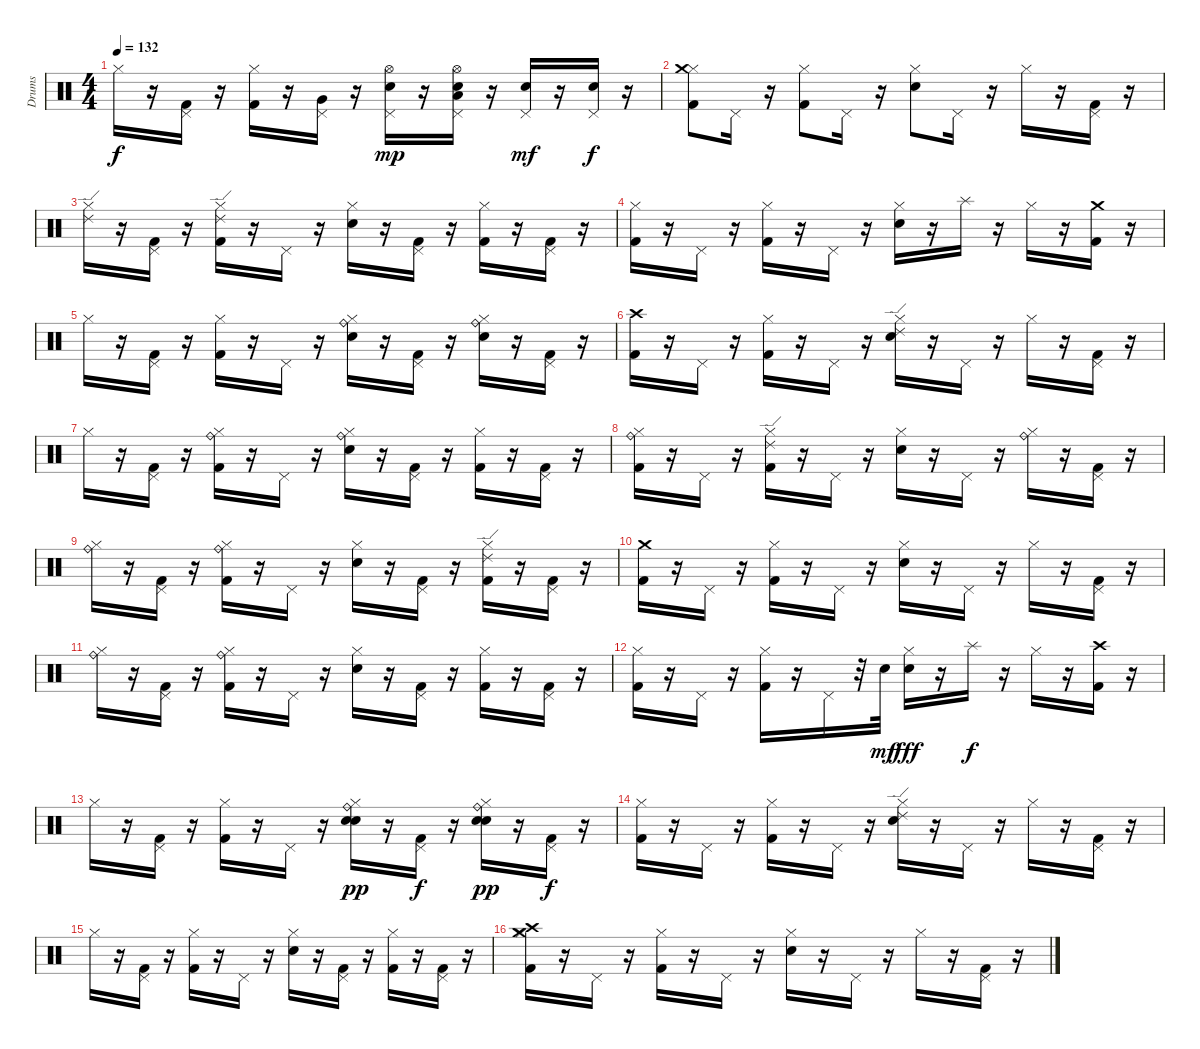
\track ("Drums" "Drums") {instrument percussion}
\staff {score}
\articulation defaults
\ts (4 4)
\tempo 132
\clef neutral
\ks c "Hi-Hat (closed)".16{dy f}
r.16 ("Pedal Hi-Hat (hit)" "Kick (hit) 2").16 r.16 ("Hi-Hat (closed)" "Kick (hit) 2").16 r.16 ("Pedal Hi-Hat (hit)" "Very Low Tom (hit)").16 r.16 ("Pedal Hi-Hat (hit)" "Snare (hit) 2" "Hi-Hat (open)").16{dy mp} r.16 ("Hi-Hat (open)" "Pedal Hi-Hat (hit)" "Low Tom (hit)" "Electric Snare (hit)").16 r.16 ("Pedal Hi-Hat (hit)" "Electric Snare (hit)").16{dy mf} r.16 ("Pedal Hi-Hat (hit)" "Electric Snare (hit)").16{dy f} r.16 |
("Hi-Hat (closed)" "Kick (hit) 2" "Crash medium (hit)").8 "Pedal Hi-Hat (hit)".16 r.16 ("Hi-Hat (closed)" "Kick (hit) 2").8 "Pedal Hi-Hat (hit)".16 r.16 ("Hi-Hat (closed)" "Electric Snare (hit)").8 "Pedal Hi-Hat (hit)".16 r.16 "Hi-Hat (closed)".16 r.16 ("Pedal Hi-Hat (hit)" "Kick (hit) 2").16 r.16 |
("Ride (edge) 2" "Hi-Hat (closed)").16 r.16 ("Pedal Hi-Hat (hit)" "Kick (hit) 2").16 r.16 ("Ride (edge) 2" "Hi-Hat (closed)" "Kick (hit) 2").16 r.16 "Pedal Hi-Hat (hit)".16 r.16 ("Hi-Hat (closed)" "Electric Snare (hit)").16 r.16 ("Pedal Hi-Hat (hit)" "Kick (hit) 2").16 r.16 ("Hi-Hat (closed)" "Kick (hit) 2").16 r.16 ("Pedal Hi-Hat (hit)" "Kick (hit) 2").16 r.16 |
("Hi-Hat (closed)" "Kick (hit) 2").16 r.16 "Pedal Hi-Hat (hit)".16 r.16 ("Hi-Hat (closed)" "Kick (hit) 2").16 r.16 "Pedal Hi-Hat (hit)".16 r.16 ("Hi-Hat (closed)" "Electric Snare (hit)").16 r.16 "Splash (hit)".16 r.16 "Hi-Hat (closed)".16 r.16 ("Crash medium (hit)" "Kick (hit) 2").16 r.16 |
"Hi-Hat (closed)".16 r.16 ("Pedal Hi-Hat (hit)" "Kick (hit) 2").16 r.16 ("Hi-Hat (closed)" "Kick (hit) 2").16 r.16 "Pedal Hi-Hat (hit)".16 r.16 ("Ride (bell)" "Hi-Hat (closed)" "Electric Snare (hit)").16 r.16 ("Pedal Hi-Hat (hit)" "Kick (hit) 2").16 r.16 ("Ride (bell)" "Hi-Hat (closed)" "Electric Snare (hit)").16 r.16 ("Pedal Hi-Hat (hit)" "Kick (hit) 2").16 r.16 |
("Crash high (hit)" "Kick (hit) 2").16 r.16 "Pedal Hi-Hat (hit)".16 r.16 ("Hi-Hat (closed)" "Kick (hit) 2").16 r.16 "Pedal Hi-Hat (hit)".16 r.16 ("Ride (edge) 2" "Hi-Hat (closed)" "Electric Snare (hit)").16 r.16 "Pedal Hi-Hat (hit)".16 r.16 "Hi-Hat (closed)".16 r.16 ("Pedal Hi-Hat (hit)" "Kick (hit) 2").16 r.16 |
"Hi-Hat (closed)".16 r.16 ("Pedal Hi-Hat (hit)" "Kick (hit) 2").16 r.16 ("Ride (bell)" "Hi-Hat (closed)" "Kick (hit) 2").16 r.16 "Pedal Hi-Hat (hit)".16 r.16 ("Ride (bell)" "Hi-Hat (closed)" "Electric Snare (hit)").16 r.16 ("Pedal Hi-Hat (hit)" "Kick (hit) 2").16 r.16 ("Hi-Hat (closed)" "Kick (hit) 2").16 r.16 ("Pedal Hi-Hat (hit)" "Kick (hit) 2").16 r.16 |
("Ride (bell)" "Hi-Hat (closed)" "Kick (hit) 2").16 r.16 "Pedal Hi-Hat (hit)".16 r.16 ("Ride (edge) 2" "Hi-Hat (closed)" "Kick (hit) 2").16 r.16 "Pedal Hi-Hat (hit)".16 r.16 ("Hi-Hat (closed)" "Electric Snare (hit)").16 r.16 "Pedal Hi-Hat (hit)".16 r.16 ("Ride (bell)" "Hi-Hat (closed)").16 r.16 ("Pedal Hi-Hat (hit)" "Kick (hit) 2").16 r.16 |
("Ride (bell)" "Hi-Hat (closed)").16 r.16 ("Pedal Hi-Hat (hit)" "Kick (hit) 2").16 r.16 ("Ride (bell)" "Hi-Hat (closed)" "Kick (hit) 2").16 r.16 "Pedal Hi-Hat (hit)".16 r.16 ("Hi-Hat (closed)" "Electric Snare (hit)").16 r.16 ("Pedal Hi-Hat (hit)" "Kick (hit) 2").16 r.16 ("Ride (edge) 2" "Hi-Hat (closed)" "Kick (hit) 2").16 r.16 ("Pedal Hi-Hat (hit)" "Kick (hit) 2").16 r.16 |
("Crash medium (hit)" "Kick (hit) 2").16 r.16 "Pedal Hi-Hat (hit)".16 r.16 ("Hi-Hat (closed)" "Kick (hit) 2").16 r.16 "Pedal Hi-Hat (hit)".16 r.16 ("Hi-Hat (closed)" "Electric Snare (hit)").16 r.16 "Pedal Hi-Hat (hit)".16 r.16 "Hi-Hat (closed)".16 r.16 ("Pedal Hi-Hat (hit)" "Kick (hit) 2").16 r.16 |
("Ride (bell)" "Hi-Hat (closed)").16 r.16 ("Pedal Hi-Hat (hit)" "Kick (hit) 2").16 r.16 ("Ride (bell)" "Hi-Hat (closed)" "Kick (hit) 2").16 r.16 "Pedal Hi-Hat (hit)".16 r.16 ("Hi-Hat (closed)" "Electric Snare (hit)").16 r.16 ("Pedal Hi-Hat (hit)" "Kick (hit) 2").16 r.16 ("Hi-Hat (closed)" "Kick (hit) 2").16 r.16 ("Pedal Hi-Hat (hit)" "Kick (hit) 2").16 r.16 |
("Hi-Hat (closed)" "Kick (hit) 2").16 r.16 "Pedal Hi-Hat (hit)".16 r.16 ("Hi-Hat (closed)" "Kick (hit) 2").16 r.16 "Pedal Hi-Hat (hit)".16 r.32 "Electric Snare (hit)".32{dy mf} ("Hi-Hat (closed)" "Electric Snare (hit)").16{dy fff} r.16 "Splash (hit)".16{dy f} r.16 "Hi-Hat (closed)".16 r.16 ("Crash high (hit)" "Kick (hit) 2").16 r.16 |
"Hi-Hat (closed)".16 r.16 ("Pedal Hi-Hat (hit)" "Kick (hit) 2").16 r.16 ("Hi-Hat (closed)" "Kick (hit) 2").16 r.16 "Pedal Hi-Hat (hit)".16 r.16 ("Snare (hit) 2" "Ride (bell)" "Hi-Hat (closed)" "Electric Snare (hit)").16{dy pp} r.16 ("Pedal Hi-Hat (hit)" "Kick (hit) 2").16{dy f} r.16 ("Snare (hit) 2" "Ride (bell)" "Hi-Hat (closed)" "Electric Snare (hit)").16{dy pp} r.16 ("Pedal Hi-Hat (hit)" "Kick (hit) 2").16{dy f} r.16 |
("Hi-Hat (closed)" "Kick (hit) 2").16 r.16 "Pedal Hi-Hat (hit)".16 r.16 ("Hi-Hat (closed)" "Kick (hit) 2").16 r.16 "Pedal Hi-Hat (hit)".16 r.16 ("Ride (edge) 2" "Hi-Hat (closed)" "Electric Snare (hit)").16 r.16 "Pedal Hi-Hat (hit)".16 r.16 "Hi-Hat (closed)".16 r.16 ("Pedal Hi-Hat (hit)" "Kick (hit) 2").16 r.16 |
"Hi-Hat (closed)".16 r.16 ("Pedal Hi-Hat (hit)" "Kick (hit) 2").16 r.16 ("Hi-Hat (closed)" "Kick (hit) 2").16 r.16 "Pedal Hi-Hat (hit)".16 r.16 ("Hi-Hat (closed)" "Electric Snare (hit)").16 r.16 ("Pedal Hi-Hat (hit)" "Kick (hit) 2").16 r.16 ("Hi-Hat (closed)" "Kick (hit) 2").16 r.16 ("Pedal Hi-Hat (hit)" "Kick (hit) 2").16 r.16 |
("Hi-Hat (closed)" "Kick (hit) 2" "Crash medium (hit)" "Crash high (hit)").16 r.16 "Pedal Hi-Hat (hit)".16 r.16 ("Hi-Hat (closed)" "Kick (hit) 2").16 r.16 "Pedal Hi-Hat (hit)".16 r.16 ("Hi-Hat (closed)" "Electric Snare (hit)").16 r.16 "Pedal Hi-Hat (hit)".16 r.16 "Hi-Hat (closed)".16 r.16 ("Pedal Hi-Hat (hit)" "Kick (hit) 2").16 r.16
